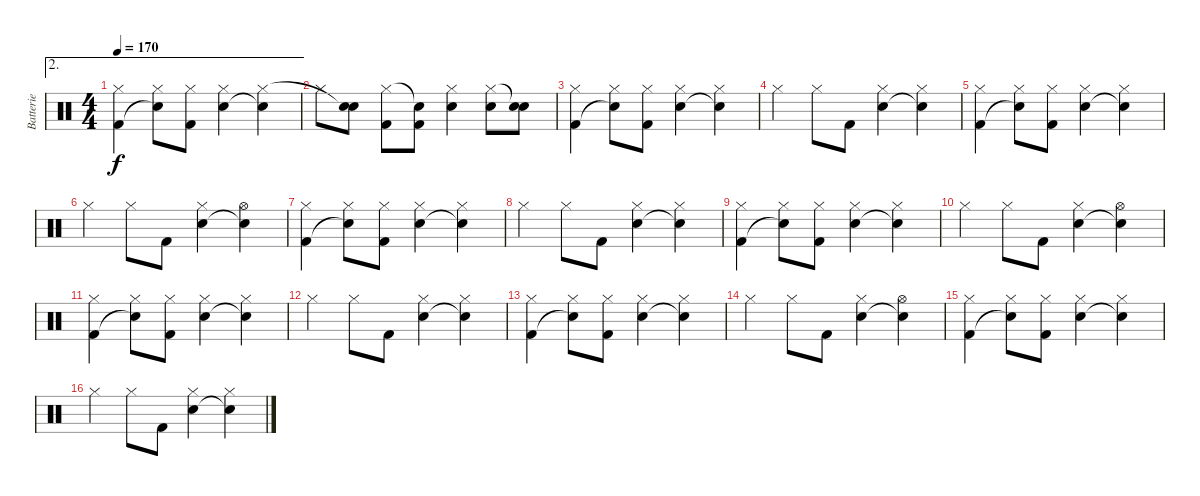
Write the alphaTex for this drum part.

\track ("Batterie" "Batterie") {instrument percussion}
\staff {score}
\articulation defaults
\ae 2
\ts (4 4)
\tempo 170
\clef neutral
\ks c
("Kick (hit) 2" "Hi-Hat (closed)").4{dy f} ("Snare (hit)"{t} "Hi-Hat (closed)").8 ("Kick (hit) 2" "Hi-Hat (closed)").8 ("Snare (hit) 2" "Hi-Hat (closed)").4 ("Snare (hit)"{t} "Hi-Hat (closed)").4 |
"Hi-Hat (closed)".8 ("Snare (hit) 2" "Snare (hit)"{t}).8 ("Kick (hit) 2" "Hi-Hat (closed)").8 ("Kick (hit) 2" "Snare (hit)"{t}).8 ("Snare (hit) 2" "Hi-Hat (closed)").4 ("Snare (hit) 2" "Hi-Hat (closed)").8 ("Snare (hit) 2" "Snare (hit)"{t}).8 |
("Kick (hit) 2" "Hi-Hat (closed)").4 ("Snare (hit)"{t} "Hi-Hat (closed)").8 ("Kick (hit) 2" "Hi-Hat (closed)").8 ("Snare (hit) 2" "Hi-Hat (closed)").4 ("Snare (hit)"{t} "Hi-Hat (closed)").4 |
"Hi-Hat (closed)".4 "Hi-Hat (closed)".8 "Kick (hit) 2".8 ("Snare (hit) 2" "Hi-Hat (closed)").4 ("Snare (hit)"{t} "Hi-Hat (closed)").4 |
("Kick (hit) 2" "Hi-Hat (closed)").4 ("Snare (hit)"{t} "Hi-Hat (closed)").8 ("Kick (hit) 2" "Hi-Hat (closed)").8 ("Snare (hit) 2" "Hi-Hat (closed)").4 ("Snare (hit)"{t} "Hi-Hat (closed)").4 |
"Hi-Hat (closed)".4 "Hi-Hat (closed)".8 "Kick (hit) 2".8 ("Snare (hit) 2" "Hi-Hat (closed)").4 ("Snare (hit)"{t} "Hi-Hat (open)").4 |
("Kick (hit) 2" "Hi-Hat (closed)").4 ("Snare (hit)"{t} "Hi-Hat (closed)").8 ("Kick (hit) 2" "Hi-Hat (closed)").8 ("Snare (hit) 2" "Hi-Hat (closed)").4 ("Snare (hit)"{t} "Hi-Hat (closed)").4 |
"Hi-Hat (closed)".4 "Hi-Hat (closed)".8 "Kick (hit) 2".8 ("Snare (hit) 2" "Hi-Hat (closed)").4 ("Snare (hit)"{t} "Hi-Hat (closed)").4 |
("Kick (hit) 2" "Hi-Hat (closed)").4 ("Snare (hit)"{t} "Hi-Hat (closed)").8 ("Kick (hit) 2" "Hi-Hat (closed)").8 ("Snare (hit) 2" "Hi-Hat (closed)").4 ("Snare (hit)"{t} "Hi-Hat (closed)").4 |
"Hi-Hat (closed)".4 "Hi-Hat (closed)".8 "Kick (hit) 2".8 ("Snare (hit) 2" "Hi-Hat (closed)").4 ("Snare (hit)"{t} "Hi-Hat (open)").4 |
("Kick (hit) 2" "Hi-Hat (closed)").4 ("Snare (hit)"{t} "Hi-Hat (closed)").8 ("Kick (hit) 2" "Hi-Hat (closed)").8 ("Snare (hit) 2" "Hi-Hat (closed)").4 ("Snare (hit)"{t} "Hi-Hat (closed)").4 |
"Hi-Hat (closed)".4 "Hi-Hat (closed)".8 "Kick (hit) 2".8 ("Snare (hit) 2" "Hi-Hat (closed)").4 ("Snare (hit)"{t} "Hi-Hat (closed)").4 |
("Kick (hit) 2" "Hi-Hat (closed)").4 ("Snare (hit)"{t} "Hi-Hat (closed)").8 ("Kick (hit) 2" "Hi-Hat (closed)").8 ("Snare (hit) 2" "Hi-Hat (closed)").4 ("Snare (hit)"{t} "Hi-Hat (closed)").4 |
"Hi-Hat (closed)".4 "Hi-Hat (closed)".8 "Kick (hit) 2".8 ("Snare (hit) 2" "Hi-Hat (closed)").4 ("Snare (hit)"{t} "Hi-Hat (open)").4 |
("Kick (hit) 2" "Hi-Hat (closed)").4 ("Snare (hit)"{t} "Hi-Hat (closed)").8 ("Kick (hit) 2" "Hi-Hat (closed)").8 ("Snare (hit) 2" "Hi-Hat (closed)").4 ("Snare (hit)"{t} "Hi-Hat (closed)").4 |
"Hi-Hat (closed)".4 "Hi-Hat (closed)".8 "Kick (hit) 2".8 ("Snare (hit) 2" "Hi-Hat (closed)").4 ("Snare (hit)"{t} "Hi-Hat (closed)").4
